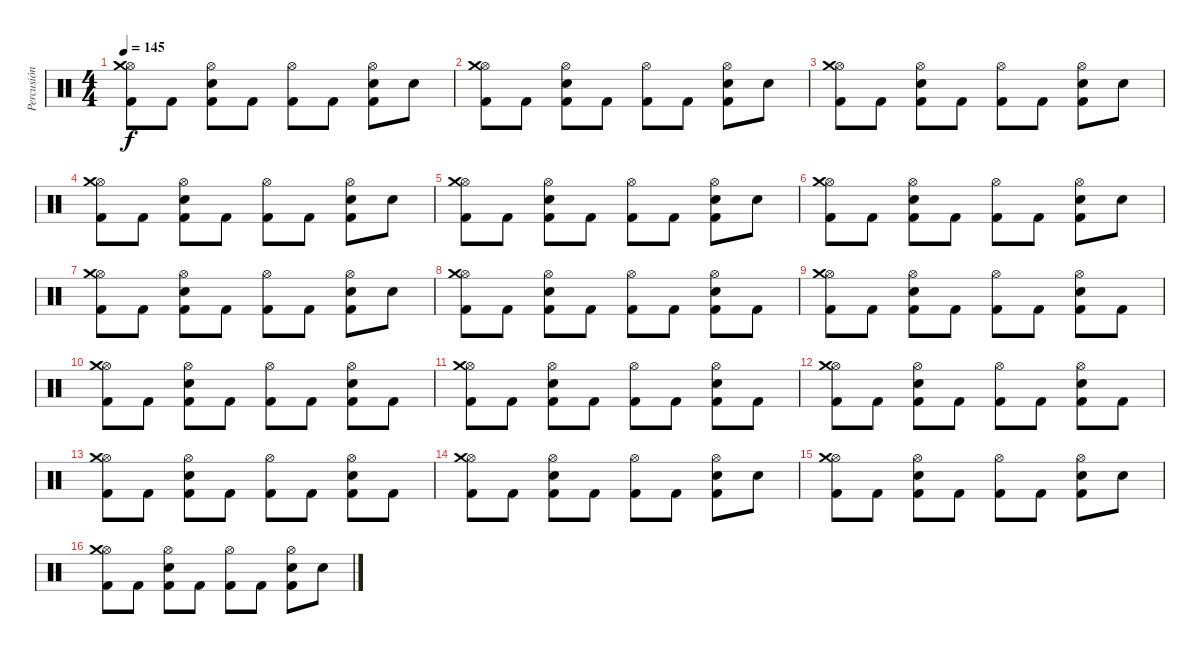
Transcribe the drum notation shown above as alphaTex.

\track ("Percusión" "Percusión") {instrument percussion}
\staff {score}
\articulation defaults
\ts (4 4)
\tempo 145
\clef neutral
\ks c
("Hi-Hat (open)" "Kick (hit) 2" "Crash medium (hit)").8{dy f} "Kick (hit) 2".8 ("Hi-Hat (open)" "Electric Snare (hit)" "Kick (hit) 2").8 "Kick (hit) 2".8 ("Hi-Hat (open)" "Kick (hit) 2").8 "Kick (hit) 2".8 ("Hi-Hat (open)" "Electric Snare (hit)" "Kick (hit) 2").8 "Electric Snare (hit)".8 |
("Hi-Hat (open)" "Kick (hit) 2" "Crash medium (hit)").8 "Kick (hit) 2".8 ("Hi-Hat (open)" "Electric Snare (hit)" "Kick (hit) 2").8 "Kick (hit) 2".8 ("Hi-Hat (open)" "Kick (hit) 2").8 "Kick (hit) 2".8 ("Hi-Hat (open)" "Electric Snare (hit)" "Kick (hit) 2").8 "Electric Snare (hit)".8 |
("Hi-Hat (open)" "Kick (hit) 2" "Crash medium (hit)").8 "Kick (hit) 2".8 ("Hi-Hat (open)" "Electric Snare (hit)" "Kick (hit) 2").8 "Kick (hit) 2".8 ("Hi-Hat (open)" "Kick (hit) 2").8 "Kick (hit) 2".8 ("Hi-Hat (open)" "Electric Snare (hit)" "Kick (hit) 2").8 "Electric Snare (hit)".8 |
("Hi-Hat (open)" "Kick (hit) 2" "Crash medium (hit)").8 "Kick (hit) 2".8 ("Hi-Hat (open)" "Electric Snare (hit)" "Kick (hit) 2").8 "Kick (hit) 2".8 ("Hi-Hat (open)" "Kick (hit) 2").8 "Kick (hit) 2".8 ("Hi-Hat (open)" "Electric Snare (hit)" "Kick (hit) 2").8 "Electric Snare (hit)".8 |
("Hi-Hat (open)" "Kick (hit) 2" "Crash medium (hit)").8 "Kick (hit) 2".8 ("Hi-Hat (open)" "Electric Snare (hit)" "Kick (hit) 2").8 "Kick (hit) 2".8 ("Hi-Hat (open)" "Kick (hit) 2").8 "Kick (hit) 2".8 ("Hi-Hat (open)" "Electric Snare (hit)" "Kick (hit) 2").8 "Electric Snare (hit)".8 |
("Hi-Hat (open)" "Kick (hit) 2" "Crash medium (hit)").8 "Kick (hit) 2".8 ("Hi-Hat (open)" "Electric Snare (hit)" "Kick (hit) 2").8 "Kick (hit) 2".8 ("Hi-Hat (open)" "Kick (hit) 2").8 "Kick (hit) 2".8 ("Hi-Hat (open)" "Electric Snare (hit)" "Kick (hit) 2").8 "Electric Snare (hit)".8 |
("Hi-Hat (open)" "Kick (hit) 2" "Crash medium (hit)").8 "Kick (hit) 2".8 ("Hi-Hat (open)" "Electric Snare (hit)" "Kick (hit) 2").8 "Kick (hit) 2".8 ("Hi-Hat (open)" "Kick (hit) 2").8 "Kick (hit) 2".8 ("Hi-Hat (open)" "Electric Snare (hit)" "Kick (hit) 2").8 "Electric Snare (hit)".8 |
("Hi-Hat (open)" "Kick (hit) 2" "Crash medium (hit)").8 "Kick (hit) 2".8 ("Hi-Hat (open)" "Electric Snare (hit)" "Kick (hit) 2").8 "Kick (hit) 2".8 ("Hi-Hat (open)" "Kick (hit) 2").8 "Kick (hit) 2".8 ("Hi-Hat (open)" "Electric Snare (hit)" "Kick (hit) 2").8 "Kick (hit) 2".8 |
("Hi-Hat (open)" "Kick (hit) 2" "Crash medium (hit)").8 "Kick (hit) 2".8 ("Hi-Hat (open)" "Electric Snare (hit)" "Kick (hit) 2").8 "Kick (hit) 2".8 ("Hi-Hat (open)" "Kick (hit) 2").8 "Kick (hit) 2".8 ("Hi-Hat (open)" "Electric Snare (hit)" "Kick (hit) 2").8 "Kick (hit) 2".8 |
("Hi-Hat (open)" "Kick (hit) 2" "Crash medium (hit)").8 "Kick (hit) 2".8 ("Hi-Hat (open)" "Electric Snare (hit)" "Kick (hit) 2").8 "Kick (hit) 2".8 ("Hi-Hat (open)" "Kick (hit) 2").8 "Kick (hit) 2".8 ("Hi-Hat (open)" "Electric Snare (hit)" "Kick (hit) 2").8 "Kick (hit) 2".8 |
("Hi-Hat (open)" "Kick (hit) 2" "Crash medium (hit)").8 "Kick (hit) 2".8 ("Hi-Hat (open)" "Electric Snare (hit)" "Kick (hit) 2").8 "Kick (hit) 2".8 ("Hi-Hat (open)" "Kick (hit) 2").8 "Kick (hit) 2".8 ("Hi-Hat (open)" "Electric Snare (hit)" "Kick (hit) 2").8 "Kick (hit) 2".8 |
("Hi-Hat (open)" "Kick (hit) 2" "Crash medium (hit)").8 "Kick (hit) 2".8 ("Hi-Hat (open)" "Electric Snare (hit)" "Kick (hit) 2").8 "Kick (hit) 2".8 ("Hi-Hat (open)" "Kick (hit) 2").8 "Kick (hit) 2".8 ("Hi-Hat (open)" "Electric Snare (hit)" "Kick (hit) 2").8 "Kick (hit) 2".8 |
("Hi-Hat (open)" "Kick (hit) 2" "Crash medium (hit)").8 "Kick (hit) 2".8 ("Hi-Hat (open)" "Electric Snare (hit)" "Kick (hit) 2").8 "Kick (hit) 2".8 ("Hi-Hat (open)" "Kick (hit) 2").8 "Kick (hit) 2".8 ("Hi-Hat (open)" "Electric Snare (hit)" "Kick (hit) 2").8 "Kick (hit) 2".8 |
("Hi-Hat (open)" "Kick (hit) 2" "Crash medium (hit)").8 "Kick (hit) 2".8 ("Hi-Hat (open)" "Electric Snare (hit)" "Kick (hit) 2").8 "Kick (hit) 2".8 ("Hi-Hat (open)" "Kick (hit) 2").8 "Kick (hit) 2".8 ("Hi-Hat (open)" "Electric Snare (hit)" "Kick (hit) 2").8 "Electric Snare (hit)".8 |
("Hi-Hat (open)" "Kick (hit) 2" "Crash medium (hit)").8 "Kick (hit) 2".8 ("Hi-Hat (open)" "Electric Snare (hit)" "Kick (hit) 2").8 "Kick (hit) 2".8 ("Hi-Hat (open)" "Kick (hit) 2").8 "Kick (hit) 2".8 ("Hi-Hat (open)" "Electric Snare (hit)" "Kick (hit) 2").8 "Electric Snare (hit)".8 |
("Hi-Hat (open)" "Kick (hit) 2" "Crash medium (hit)").8 "Kick (hit) 2".8 ("Hi-Hat (open)" "Electric Snare (hit)" "Kick (hit) 2").8 "Kick (hit) 2".8 ("Hi-Hat (open)" "Kick (hit) 2").8 "Kick (hit) 2".8 ("Hi-Hat (open)" "Electric Snare (hit)" "Kick (hit) 2").8 "Electric Snare (hit)".8
